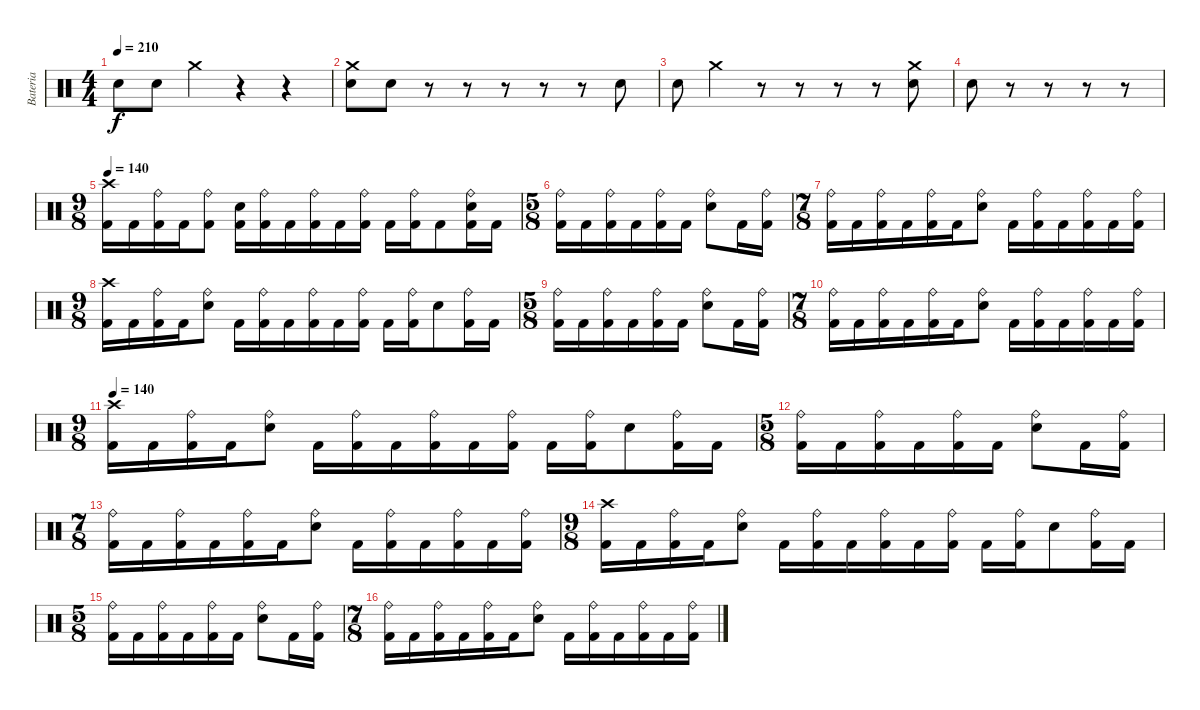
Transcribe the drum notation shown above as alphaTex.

\track ("Bateria" "Bateria") {instrument percussion}
\staff {score}
\articulation defaults
\ts (4 4)
\tempo 210
\clef neutral
\ks c "Electric Snare (hit)".8{dy f} "Electric Snare (hit)".8 "Crash medium (hit)".4
r.4 r.4 |
("Crash medium (hit)" "Electric Snare (hit)").8 "Electric Snare (hit)".8 r.8 r.8 r.8 r.8 r.8 "Electric Snare (hit)".8 |
"Electric Snare (hit)".8 "Crash medium (hit)".4 r.8 r.8 r.8 r.8 ("Crash medium (hit)" "Electric Snare (hit)").8 |
"Electric Snare (hit)".8 r.8 r.8 r.8 r.8 |
\ts (9 8)
\tempo 140
("Crash high (hit)" "Kick (hit) 2").16 "Kick (hit) 2".16 ("Ride (bell)" "Kick (hit) 2").16 "Kick (hit) 2".16 ("Ride (bell)" "Kick (hit) 2").8 ("Electric Snare (hit)" "Kick (hit) 2").16 ("Ride (bell)" "Kick (hit) 2").16 "Kick (hit) 2".16 ("Ride (bell)" "Kick (hit) 2").16 "Kick (hit) 2".16 ("Ride (bell)" "Kick (hit) 2").16 "Kick (hit) 2".16 ("Ride (bell)" "Kick (hit) 2").16 "Kick (hit) 2".8 ("Ride (bell)" "Kick (hit) 2" "Electric Snare (hit)").16 "Kick (hit) 2".16 |
\ts (5 8)
("Ride (bell)" "Kick (hit) 2").16 "Kick (hit) 2".16 ("Ride (bell)" "Kick (hit) 2").16 "Kick (hit) 2".16 ("Ride (bell)" "Kick (hit) 2").16 "Kick (hit) 2".16 ("Ride (bell)" "Electric Snare (hit)").8 "Kick (hit) 2".16 ("Ride (bell)" "Kick (hit) 2").16 |
\ts (7 8)
("Ride (bell)" "Kick (hit) 2").16 "Kick (hit) 2".16 ("Ride (bell)" "Kick (hit) 2").16 "Kick (hit) 2".16 ("Ride (bell)" "Kick (hit) 2").16 "Kick (hit) 2".16 ("Ride (bell)" "Electric Snare (hit)").8 "Kick (hit) 2".16 ("Ride (bell)" "Kick (hit) 2").16 "Kick (hit) 2".16 ("Ride (bell)" "Kick (hit) 2").16 "Kick (hit) 2".16 ("Ride (bell)" "Kick (hit) 2").16 |
\ts (9 8)
("Crash high (hit)" "Kick (hit) 2").16 "Kick (hit) 2".16 ("Ride (bell)" "Kick (hit) 2").16 "Kick (hit) 2".16 ("Ride (bell)" "Electric Snare (hit)").8 "Kick (hit) 2".16 ("Ride (bell)" "Kick (hit) 2").16 "Kick (hit) 2".16 ("Ride (bell)" "Kick (hit) 2").16 "Kick (hit) 2".16 ("Ride (bell)" "Kick (hit) 2").16 "Kick (hit) 2".16 ("Ride (bell)" "Kick (hit) 2").16 "Electric Snare (hit)".8 ("Ride (bell)" "Kick (hit) 2").16 "Kick (hit) 2".16 |
\ts (5 8)
("Ride (bell)" "Kick (hit) 2").16 "Kick (hit) 2".16 ("Ride (bell)" "Kick (hit) 2").16 "Kick (hit) 2".16 ("Ride (bell)" "Kick (hit) 2").16 "Kick (hit) 2".16 ("Ride (bell)" "Electric Snare (hit)").8 "Kick (hit) 2".16 ("Ride (bell)" "Kick (hit) 2").16 |
\ts (7 8)
("Ride (bell)" "Kick (hit) 2").16 "Kick (hit) 2".16 ("Ride (bell)" "Kick (hit) 2").16 "Kick (hit) 2".16 ("Ride (bell)" "Kick (hit) 2").16 "Kick (hit) 2".16 ("Ride (bell)" "Electric Snare (hit)").8 "Kick (hit) 2".16 ("Ride (bell)" "Kick (hit) 2").16 "Kick (hit) 2".16 ("Ride (bell)" "Kick (hit) 2").16 "Kick (hit) 2".16 ("Ride (bell)" "Kick (hit) 2").16 |
\ts (9 8)
\tempo 140
("Crash high (hit)" "Kick (hit) 2").16 "Kick (hit) 2".16 ("Ride (bell)" "Kick (hit) 2").16 "Kick (hit) 2".16 ("Ride (bell)" "Electric Snare (hit)").8 "Kick (hit) 2".16 ("Ride (bell)" "Kick (hit) 2").16 "Kick (hit) 2".16 ("Ride (bell)" "Kick (hit) 2").16 "Kick (hit) 2".16 ("Ride (bell)" "Kick (hit) 2").16 "Kick (hit) 2".16 ("Ride (bell)" "Kick (hit) 2").16 "Electric Snare (hit)".8 ("Ride (bell)" "Kick (hit) 2").16 "Kick (hit) 2".16 |
\ts (5 8)
("Ride (bell)" "Kick (hit) 2").16 "Kick (hit) 2".16 ("Ride (bell)" "Kick (hit) 2").16 "Kick (hit) 2".16 ("Ride (bell)" "Kick (hit) 2").16 "Kick (hit) 2".16 ("Ride (bell)" "Electric Snare (hit)").8 "Kick (hit) 2".16 ("Ride (bell)" "Kick (hit) 2").16 |
\ts (7 8)
("Ride (bell)" "Kick (hit) 2").16 "Kick (hit) 2".16 ("Ride (bell)" "Kick (hit) 2").16 "Kick (hit) 2".16 ("Ride (bell)" "Kick (hit) 2").16 "Kick (hit) 2".16 ("Ride (bell)" "Electric Snare (hit)").8 "Kick (hit) 2".16 ("Ride (bell)" "Kick (hit) 2").16 "Kick (hit) 2".16 ("Ride (bell)" "Kick (hit) 2").16 "Kick (hit) 2".16 ("Ride (bell)" "Kick (hit) 2").16 |
\ts (9 8)
("Crash high (hit)" "Kick (hit) 2").16 "Kick (hit) 2".16 ("Ride (bell)" "Kick (hit) 2").16 "Kick (hit) 2".16 ("Ride (bell)" "Electric Snare (hit)").8 "Kick (hit) 2".16 ("Ride (bell)" "Kick (hit) 2").16 "Kick (hit) 2".16 ("Ride (bell)" "Kick (hit) 2").16 "Kick (hit) 2".16 ("Ride (bell)" "Kick (hit) 2").16 "Kick (hit) 2".16 ("Ride (bell)" "Kick (hit) 2").16 "Electric Snare (hit)".8 ("Ride (bell)" "Kick (hit) 2").16 "Kick (hit) 2".16 |
\ts (5 8)
("Ride (bell)" "Kick (hit) 2").16 "Kick (hit) 2".16 ("Ride (bell)" "Kick (hit) 2").16 "Kick (hit) 2".16 ("Ride (bell)" "Kick (hit) 2").16 "Kick (hit) 2".16 ("Ride (bell)" "Electric Snare (hit)").8 "Kick (hit) 2".16 ("Ride (bell)" "Kick (hit) 2").16 |
\ts (7 8)
("Ride (bell)" "Kick (hit) 2").16 "Kick (hit) 2".16 ("Ride (bell)" "Kick (hit) 2").16 "Kick (hit) 2".16 ("Ride (bell)" "Kick (hit) 2").16 "Kick (hit) 2".16 ("Ride (bell)" "Electric Snare (hit)").8 "Kick (hit) 2".16 ("Ride (bell)" "Kick (hit) 2").16 "Kick (hit) 2".16 ("Ride (bell)" "Kick (hit) 2").16 "Kick (hit) 2".16 ("Ride (bell)" "Kick (hit) 2").16
